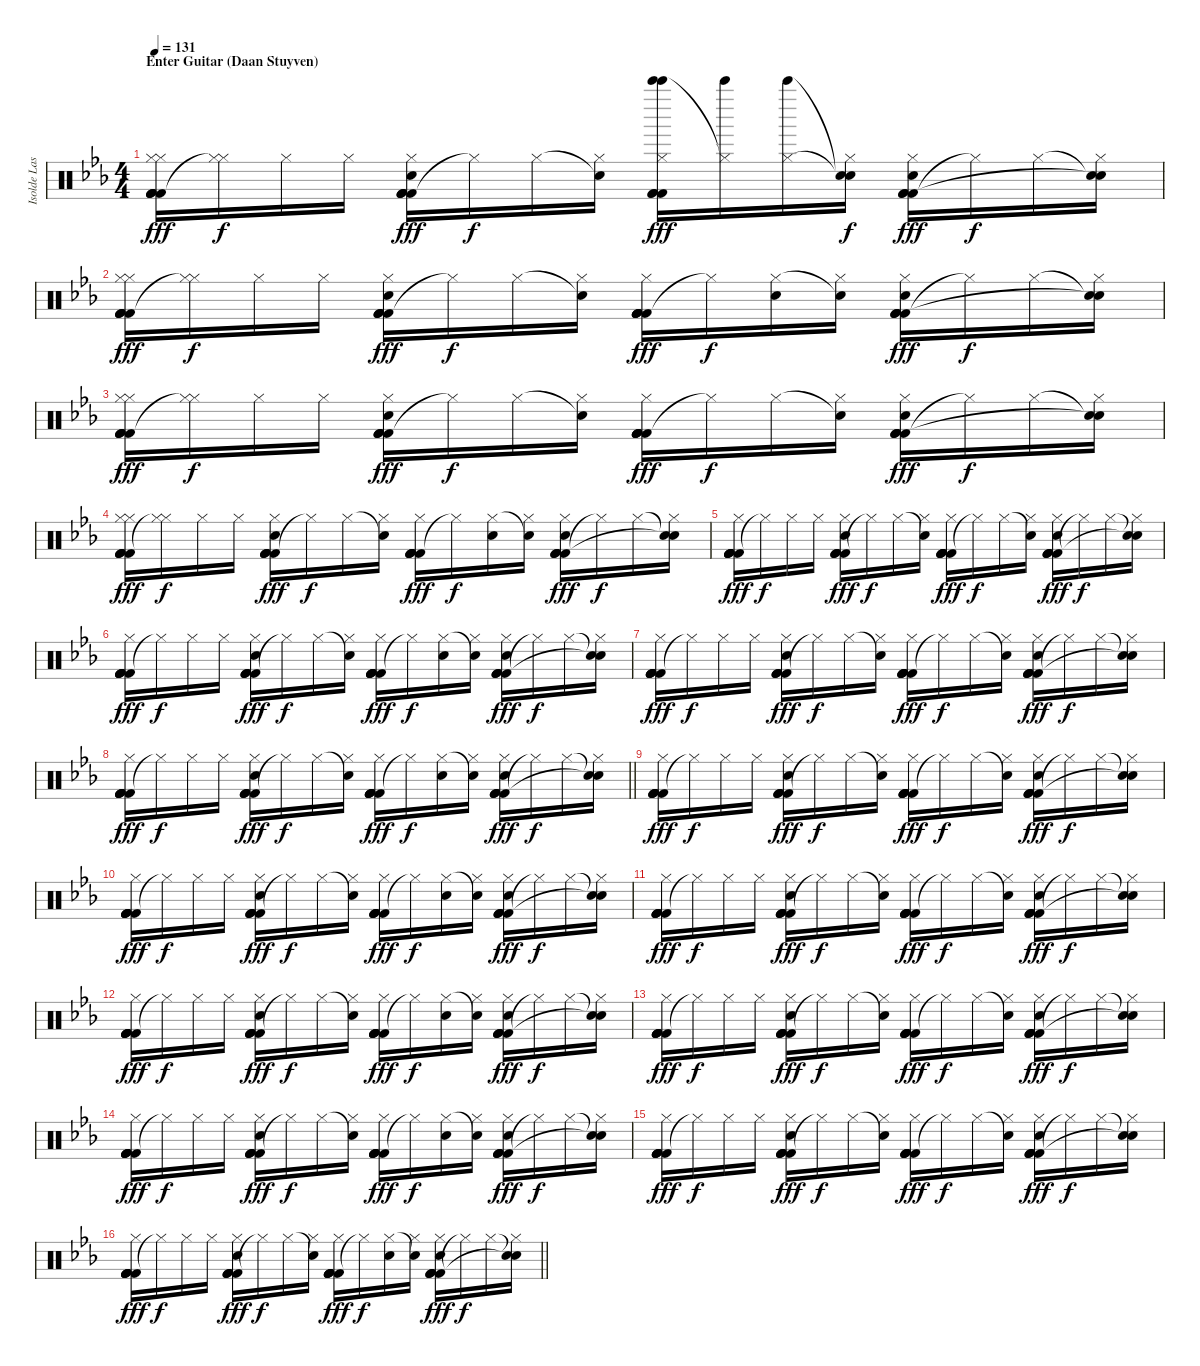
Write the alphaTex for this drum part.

\track ("Isolde Lasoen (Percussion)" "Isolde Las") {instrument percussion}
\staff {score}
\articulation defaults
\ts (4 4)
\section ("" "Enter Guitar (Daan Stuyven)")
\tempo 131
\clef neutral
\ks cminor
("Hi-Hat (closed)" "Kick (hit) 2" "Kick (hit) 2" "Kick (hit) 2" "Hi-Hat (closed)" "Kick (hit) 2").16{dy fff} ("Hi-Hat (closed)" "Hi-Hat (closed)"{t}).16{dy f} "Hi-Hat (closed)".16 "Hi-Hat (closed)".16 ("Kick (hit) 2" "Kick (hit) 2" "Kick (hit) 2" "Kick (hit) 2" "Hi-Hat (closed)" "Hand Clap (hit)").16{dy fff} "Hi-Hat (closed)"{t}.16{dy f} "Hi-Hat (closed)".16 ("Snare (hit)"{t} "Hi-Hat (closed)").16 ("Bell Tree (hit)" "Bell Tree (hit)" "Kick (hit) 2" "Kick (hit) 2" "Hi-Hat (closed)" "Kick (hit) 2").16{dy fff} ("Bell Tree (hit)" "Hi-Hat (closed)"{t}).16 ("Bell Tree (hit)" "Hi-Hat (closed)").16 ("Snare (hit)"{t} "Snare (hit)"{t} "Hi-Hat (closed)").16{dy f} ("Kick (hit) 2" "Kick (hit) 2" "Kick (hit) 2" "Hi-Hat (closed)" "Hand Clap (hit)").16{dy fff} "Hi-Hat (closed)"{t}.16{dy f} "Hi-Hat (closed)".16 ("Snare (hit)"{t} "Hi-Hat (closed)" "Snare (hit)"{t}).16 |
("Hi-Hat (closed)" "Kick (hit) 2" "Kick (hit) 2" "Kick (hit) 2" "Hi-Hat (closed)" "Kick (hit) 2").16{dy fff} ("Hi-Hat (closed)" "Hi-Hat (closed)"{t}).16{dy f} "Hi-Hat (closed)".16 "Hi-Hat (closed)".16 ("Kick (hit) 2" "Kick (hit) 2" "Kick (hit) 2" "Kick (hit) 2" "Hi-Hat (closed)" "Hand Clap (hit)").16{dy fff} "Hi-Hat (closed)"{t}.16{dy f} "Hi-Hat (closed)".16 ("Snare (hit)"{t} "Hi-Hat (closed)").16 ("Kick (hit) 2" "Kick (hit) 2" "Kick (hit) 2" "Kick (hit) 2" "Hi-Hat (closed)" "Kick (hit) 2").16{dy fff} "Hi-Hat (closed)"{t}.16{dy f} ("Hi-Hat (closed)" "Hand Clap (hit)").16 ("Snare (hit)"{t} "Hi-Hat (closed)").16 ("Kick (hit) 2" "Kick (hit) 2" "Kick (hit) 2" "Kick (hit) 2" "Hi-Hat (closed)" "Hand Clap (hit)").16{dy fff} "Hi-Hat (closed)"{t}.16{dy f} "Hi-Hat (closed)".16 ("Snare (hit)"{t} "Hi-Hat (closed)" "Snare (hit)"{t}).16 |
("Hi-Hat (closed)" "Kick (hit) 2" "Kick (hit) 2" "Kick (hit) 2" "Hi-Hat (closed)" "Kick (hit) 2").16{dy fff} ("Hi-Hat (closed)" "Hi-Hat (closed)"{t}).16{dy f} "Hi-Hat (closed)".16 "Hi-Hat (closed)".16 ("Kick (hit) 2" "Kick (hit) 2" "Kick (hit) 2" "Kick (hit) 2" "Hi-Hat (closed)" "Hand Clap (hit)").16{dy fff} "Hi-Hat (closed)"{t}.16{dy f} "Hi-Hat (closed)".16 ("Snare (hit)"{t} "Hi-Hat (closed)").16 ("Kick (hit) 2" "Kick (hit) 2" "Kick (hit) 2" "Kick (hit) 2" "Hi-Hat (closed)" "Kick (hit) 2").16{dy fff} "Hi-Hat (closed)"{t}.16{dy f} "Hi-Hat (closed)".16 ("Snare (hit)"{t} "Hi-Hat (closed)").16 ("Kick (hit) 2" "Kick (hit) 2" "Kick (hit) 2" "Kick (hit) 2" "Hi-Hat (closed)" "Hand Clap (hit)").16{dy fff} "Hi-Hat (closed)"{t}.16{dy f} "Hi-Hat (closed)".16 ("Snare (hit)"{t} "Hi-Hat (closed)" "Snare (hit)"{t}).16 |
("Hi-Hat (closed)" "Kick (hit) 2" "Kick (hit) 2" "Kick (hit) 2" "Hi-Hat (closed)" "Kick (hit) 2").16{dy fff} ("Hi-Hat (closed)" "Hi-Hat (closed)"{t}).16{dy f} "Hi-Hat (closed)".16 "Hi-Hat (closed)".16 ("Kick (hit) 2" "Kick (hit) 2" "Kick (hit) 2" "Kick (hit) 2" "Hi-Hat (closed)" "Hand Clap (hit)").16{dy fff} "Hi-Hat (closed)"{t}.16{dy f} "Hi-Hat (closed)".16 ("Snare (hit)"{t} "Hi-Hat (closed)").16 ("Kick (hit) 2" "Kick (hit) 2" "Kick (hit) 2" "Kick (hit) 2" "Hi-Hat (closed)" "Kick (hit) 2").16{dy fff} "Hi-Hat (closed)"{t}.16{dy f} ("Hi-Hat (closed)" "Hand Clap (hit)").16 ("Snare (hit)"{t} "Hi-Hat (closed)").16 ("Kick (hit) 2" "Kick (hit) 2" "Kick (hit) 2" "Kick (hit) 2" "Hi-Hat (closed)" "Hand Clap (hit)").16{dy fff} "Hi-Hat (closed)"{t}.16{dy f} "Hi-Hat (closed)".16 ("Snare (hit)"{t} "Hi-Hat (closed)" "Snare (hit)"{t}).16 |
("Kick (hit) 2" "Kick (hit) 2" "Kick (hit) 2" "Kick (hit) 2" "Hi-Hat (closed)" "Kick (hit) 2").16{dy fff} "Hi-Hat (closed)"{t}.16{dy f} "Hi-Hat (closed)".16 "Hi-Hat (closed)".16 ("Kick (hit) 2" "Kick (hit) 2" "Kick (hit) 2" "Kick (hit) 2" "Hi-Hat (closed)" "Hand Clap (hit)").16{dy fff} "Hi-Hat (closed)"{t}.16{dy f} "Hi-Hat (closed)".16 ("Snare (hit)"{t} "Hi-Hat (closed)").16 ("Kick (hit) 2" "Kick (hit) 2" "Kick (hit) 2" "Kick (hit) 2" "Hi-Hat (closed)" "Kick (hit) 2").16{dy fff} "Hi-Hat (closed)"{t}.16{dy f} "Hi-Hat (closed)".16 ("Snare (hit)"{t} "Hi-Hat (closed)").16 ("Kick (hit) 2" "Kick (hit) 2" "Kick (hit) 2" "Kick (hit) 2" "Hi-Hat (closed)" "Hand Clap (hit)").16{dy fff} "Hi-Hat (closed)"{t}.16{dy f} "Hi-Hat (closed)".16 ("Snare (hit)"{t} "Hi-Hat (closed)" "Snare (hit)"{t}).16 |
("Kick (hit) 2" "Kick (hit) 2" "Kick (hit) 2" "Kick (hit) 2" "Hi-Hat (closed)" "Kick (hit) 2").16{dy fff} "Hi-Hat (closed)"{t}.16{dy f} "Hi-Hat (closed)".16 "Hi-Hat (closed)".16 ("Kick (hit) 2" "Kick (hit) 2" "Kick (hit) 2" "Kick (hit) 2" "Hi-Hat (closed)" "Hand Clap (hit)").16{dy fff} "Hi-Hat (closed)"{t}.16{dy f} "Hi-Hat (closed)".16 ("Snare (hit)"{t} "Hi-Hat (closed)").16 ("Kick (hit) 2" "Kick (hit) 2" "Kick (hit) 2" "Kick (hit) 2" "Hi-Hat (closed)" "Kick (hit) 2").16{dy fff} "Hi-Hat (closed)"{t}.16{dy f} ("Hi-Hat (closed)" "Hand Clap (hit)").16 ("Snare (hit)"{t} "Hi-Hat (closed)").16 ("Kick (hit) 2" "Kick (hit) 2" "Kick (hit) 2" "Kick (hit) 2" "Hi-Hat (closed)" "Hand Clap (hit)").16{dy fff} "Hi-Hat (closed)"{t}.16{dy f} "Hi-Hat (closed)".16 ("Snare (hit)"{t} "Hi-Hat (closed)" "Snare (hit)"{t}).16 |
("Kick (hit) 2" "Kick (hit) 2" "Kick (hit) 2" "Kick (hit) 2" "Hi-Hat (closed)" "Kick (hit) 2").16{dy fff} "Hi-Hat (closed)"{t}.16{dy f} "Hi-Hat (closed)".16 "Hi-Hat (closed)".16 ("Kick (hit) 2" "Kick (hit) 2" "Kick (hit) 2" "Kick (hit) 2" "Hi-Hat (closed)" "Hand Clap (hit)").16{dy fff} "Hi-Hat (closed)"{t}.16{dy f} "Hi-Hat (closed)".16 ("Snare (hit)"{t} "Hi-Hat (closed)").16 ("Kick (hit) 2" "Kick (hit) 2" "Kick (hit) 2" "Kick (hit) 2" "Hi-Hat (closed)" "Kick (hit) 2").16{dy fff} "Hi-Hat (closed)"{t}.16{dy f} "Hi-Hat (closed)".16 ("Snare (hit)"{t} "Hi-Hat (closed)").16 ("Kick (hit) 2" "Kick (hit) 2" "Kick (hit) 2" "Kick (hit) 2" "Hi-Hat (closed)" "Hand Clap (hit)").16{dy fff} "Hi-Hat (closed)"{t}.16{dy f} "Hi-Hat (closed)".16 ("Snare (hit)"{t} "Hi-Hat (closed)" "Snare (hit)"{t}).16 |
\barLineRight lightlight
("Kick (hit) 2" "Kick (hit) 2" "Kick (hit) 2" "Kick (hit) 2" "Hi-Hat (closed)" "Kick (hit) 2").16{dy fff} "Hi-Hat (closed)"{t}.16{dy f} "Hi-Hat (closed)".16 "Hi-Hat (closed)".16 ("Kick (hit) 2" "Kick (hit) 2" "Kick (hit) 2" "Kick (hit) 2" "Hi-Hat (closed)" "Hand Clap (hit)").16{dy fff} "Hi-Hat (closed)"{t}.16{dy f} "Hi-Hat (closed)".16 ("Snare (hit)"{t} "Hi-Hat (closed)").16 ("Kick (hit) 2" "Kick (hit) 2" "Kick (hit) 2" "Kick (hit) 2" "Hi-Hat (closed)" "Kick (hit) 2").16{dy fff} "Hi-Hat (closed)"{t}.16{dy f} ("Hi-Hat (closed)" "Hand Clap (hit)").16 ("Snare (hit)"{t} "Hi-Hat (closed)").16 ("Kick (hit) 2" "Kick (hit) 2" "Kick (hit) 2" "Kick (hit) 2" "Hi-Hat (closed)" "Hand Clap (hit)").16{dy fff} "Hi-Hat (closed)"{t}.16{dy f} "Hi-Hat (closed)".16 ("Snare (hit)"{t} "Hi-Hat (closed)" "Snare (hit)"{t}).16 |
("Kick (hit) 2" "Kick (hit) 2" "Kick (hit) 2" "Kick (hit) 2" "Hi-Hat (closed)" "Kick (hit) 2").16{dy fff} "Hi-Hat (closed)"{t}.16{dy f} "Hi-Hat (closed)".16 "Hi-Hat (closed)".16 ("Kick (hit) 2" "Kick (hit) 2" "Kick (hit) 2" "Kick (hit) 2" "Hi-Hat (closed)" "Hand Clap (hit)").16{dy fff} "Hi-Hat (closed)"{t}.16{dy f} "Hi-Hat (closed)".16 ("Snare (hit)"{t} "Hi-Hat (closed)").16 ("Kick (hit) 2" "Kick (hit) 2" "Kick (hit) 2" "Kick (hit) 2" "Hi-Hat (closed)" "Kick (hit) 2").16{dy fff} "Hi-Hat (closed)"{t}.16{dy f} "Hi-Hat (closed)".16 ("Snare (hit)"{t} "Hi-Hat (closed)").16 ("Kick (hit) 2" "Kick (hit) 2" "Kick (hit) 2" "Kick (hit) 2" "Hi-Hat (closed)" "Hand Clap (hit)").16{dy fff} "Hi-Hat (closed)"{t}.16{dy f} "Hi-Hat (closed)".16 ("Snare (hit)"{t} "Hi-Hat (closed)" "Snare (hit)"{t}).16 |
("Kick (hit) 2" "Kick (hit) 2" "Kick (hit) 2" "Kick (hit) 2" "Hi-Hat (closed)" "Kick (hit) 2").16{dy fff} "Hi-Hat (closed)"{t}.16{dy f} "Hi-Hat (closed)".16 "Hi-Hat (closed)".16 ("Kick (hit) 2" "Kick (hit) 2" "Kick (hit) 2" "Kick (hit) 2" "Hi-Hat (closed)" "Hand Clap (hit)").16{dy fff} "Hi-Hat (closed)"{t}.16{dy f} "Hi-Hat (closed)".16 ("Snare (hit)"{t} "Hi-Hat (closed)").16 ("Kick (hit) 2" "Kick (hit) 2" "Kick (hit) 2" "Kick (hit) 2" "Hi-Hat (closed)" "Kick (hit) 2").16{dy fff} "Hi-Hat (closed)"{t}.16{dy f} ("Hi-Hat (closed)" "Hand Clap (hit)").16 ("Snare (hit)"{t} "Hi-Hat (closed)").16 ("Kick (hit) 2" "Kick (hit) 2" "Kick (hit) 2" "Kick (hit) 2" "Hi-Hat (closed)" "Hand Clap (hit)").16{dy fff} "Hi-Hat (closed)"{t}.16{dy f} "Hi-Hat (closed)".16 ("Snare (hit)"{t} "Hi-Hat (closed)" "Snare (hit)"{t}).16 |
("Kick (hit) 2" "Kick (hit) 2" "Kick (hit) 2" "Kick (hit) 2" "Hi-Hat (closed)" "Kick (hit) 2").16{dy fff} "Hi-Hat (closed)"{t}.16{dy f} "Hi-Hat (closed)".16 "Hi-Hat (closed)".16 ("Kick (hit) 2" "Kick (hit) 2" "Kick (hit) 2" "Kick (hit) 2" "Hi-Hat (closed)" "Hand Clap (hit)").16{dy fff} "Hi-Hat (closed)"{t}.16{dy f} "Hi-Hat (closed)".16 ("Snare (hit)"{t} "Hi-Hat (closed)").16 ("Kick (hit) 2" "Kick (hit) 2" "Kick (hit) 2" "Kick (hit) 2" "Hi-Hat (closed)" "Kick (hit) 2").16{dy fff} "Hi-Hat (closed)"{t}.16{dy f} "Hi-Hat (closed)".16 ("Snare (hit)"{t} "Hi-Hat (closed)").16 ("Kick (hit) 2" "Kick (hit) 2" "Kick (hit) 2" "Kick (hit) 2" "Hi-Hat (closed)" "Hand Clap (hit)").16{dy fff} "Hi-Hat (closed)"{t}.16{dy f} "Hi-Hat (closed)".16 ("Snare (hit)"{t} "Hi-Hat (closed)" "Snare (hit)"{t}).16 |
("Kick (hit) 2" "Kick (hit) 2" "Kick (hit) 2" "Kick (hit) 2" "Hi-Hat (closed)" "Kick (hit) 2").16{dy fff} "Hi-Hat (closed)"{t}.16{dy f} "Hi-Hat (closed)".16 "Hi-Hat (closed)".16 ("Kick (hit) 2" "Kick (hit) 2" "Kick (hit) 2" "Kick (hit) 2" "Hi-Hat (closed)" "Hand Clap (hit)").16{dy fff} "Hi-Hat (closed)"{t}.16{dy f} "Hi-Hat (closed)".16 ("Snare (hit)"{t} "Hi-Hat (closed)").16 ("Kick (hit) 2" "Kick (hit) 2" "Kick (hit) 2" "Kick (hit) 2" "Hi-Hat (closed)" "Kick (hit) 2").16{dy fff} "Hi-Hat (closed)"{t}.16{dy f} ("Hi-Hat (closed)" "Hand Clap (hit)").16 ("Snare (hit)"{t} "Hi-Hat (closed)").16 ("Kick (hit) 2" "Kick (hit) 2" "Kick (hit) 2" "Kick (hit) 2" "Hi-Hat (closed)" "Hand Clap (hit)").16{dy fff} "Hi-Hat (closed)"{t}.16{dy f} "Hi-Hat (closed)".16 ("Snare (hit)"{t} "Hi-Hat (closed)" "Snare (hit)"{t}).16 |
("Kick (hit) 2" "Kick (hit) 2" "Kick (hit) 2" "Kick (hit) 2" "Hi-Hat (closed)" "Kick (hit) 2").16{dy fff} "Hi-Hat (closed)"{t}.16{dy f} "Hi-Hat (closed)".16 "Hi-Hat (closed)".16 ("Kick (hit) 2" "Kick (hit) 2" "Kick (hit) 2" "Kick (hit) 2" "Hi-Hat (closed)" "Hand Clap (hit)").16{dy fff} "Hi-Hat (closed)"{t}.16{dy f} "Hi-Hat (closed)".16 ("Snare (hit)"{t} "Hi-Hat (closed)").16 ("Kick (hit) 2" "Kick (hit) 2" "Kick (hit) 2" "Kick (hit) 2" "Hi-Hat (closed)" "Kick (hit) 2").16{dy fff} "Hi-Hat (closed)"{t}.16{dy f} "Hi-Hat (closed)".16 ("Snare (hit)"{t} "Hi-Hat (closed)").16 ("Kick (hit) 2" "Kick (hit) 2" "Kick (hit) 2" "Kick (hit) 2" "Hi-Hat (closed)" "Hand Clap (hit)").16{dy fff} "Hi-Hat (closed)"{t}.16{dy f} "Hi-Hat (closed)".16 ("Snare (hit)"{t} "Hi-Hat (closed)" "Snare (hit)"{t}).16 |
("Kick (hit) 2" "Kick (hit) 2" "Kick (hit) 2" "Kick (hit) 2" "Hi-Hat (closed)" "Kick (hit) 2").16{dy fff} "Hi-Hat (closed)"{t}.16{dy f} "Hi-Hat (closed)".16 "Hi-Hat (closed)".16 ("Kick (hit) 2" "Kick (hit) 2" "Kick (hit) 2" "Kick (hit) 2" "Hi-Hat (closed)" "Hand Clap (hit)").16{dy fff} "Hi-Hat (closed)"{t}.16{dy f} "Hi-Hat (closed)".16 ("Snare (hit)"{t} "Hi-Hat (closed)").16 ("Kick (hit) 2" "Kick (hit) 2" "Kick (hit) 2" "Kick (hit) 2" "Hi-Hat (closed)" "Kick (hit) 2").16{dy fff} "Hi-Hat (closed)"{t}.16{dy f} ("Hi-Hat (closed)" "Hand Clap (hit)").16 ("Snare (hit)"{t} "Hi-Hat (closed)").16 ("Kick (hit) 2" "Kick (hit) 2" "Kick (hit) 2" "Kick (hit) 2" "Hi-Hat (closed)" "Hand Clap (hit)").16{dy fff} "Hi-Hat (closed)"{t}.16{dy f} "Hi-Hat (closed)".16 ("Snare (hit)"{t} "Hi-Hat (closed)" "Snare (hit)"{t}).16 |
("Kick (hit) 2" "Kick (hit) 2" "Kick (hit) 2" "Kick (hit) 2" "Hi-Hat (closed)" "Kick (hit) 2").16{dy fff} "Hi-Hat (closed)"{t}.16{dy f} "Hi-Hat (closed)".16 "Hi-Hat (closed)".16 ("Kick (hit) 2" "Kick (hit) 2" "Kick (hit) 2" "Kick (hit) 2" "Hi-Hat (closed)" "Hand Clap (hit)").16{dy fff} "Hi-Hat (closed)"{t}.16{dy f} "Hi-Hat (closed)".16 ("Snare (hit)"{t} "Hi-Hat (closed)").16 ("Kick (hit) 2" "Kick (hit) 2" "Kick (hit) 2" "Kick (hit) 2" "Hi-Hat (closed)" "Kick (hit) 2").16{dy fff} "Hi-Hat (closed)"{t}.16{dy f} "Hi-Hat (closed)".16 ("Snare (hit)"{t} "Hi-Hat (closed)").16 ("Kick (hit) 2" "Kick (hit) 2" "Kick (hit) 2" "Kick (hit) 2" "Hi-Hat (closed)" "Hand Clap (hit)").16{dy fff} "Hi-Hat (closed)"{t}.16{dy f} "Hi-Hat (closed)".16 ("Snare (hit)"{t} "Hi-Hat (closed)" "Snare (hit)"{t}).16 |
\barLineRight lightlight
("Kick (hit) 2" "Kick (hit) 2" "Kick (hit) 2" "Kick (hit) 2" "Hi-Hat (closed)" "Kick (hit) 2").16{dy fff} "Hi-Hat (closed)"{t}.16{dy f} "Hi-Hat (closed)".16 "Hi-Hat (closed)".16 ("Kick (hit) 2" "Kick (hit) 2" "Kick (hit) 2" "Kick (hit) 2" "Hi-Hat (closed)" "Hand Clap (hit)").16{dy fff} "Hi-Hat (closed)"{t}.16{dy f} "Hi-Hat (closed)".16 ("Snare (hit)"{t} "Hi-Hat (closed)").16 ("Kick (hit) 2" "Kick (hit) 2" "Kick (hit) 2" "Kick (hit) 2" "Hi-Hat (closed)" "Kick (hit) 2").16{dy fff} "Hi-Hat (closed)"{t}.16{dy f} ("Hi-Hat (closed)" "Hand Clap (hit)").16 ("Snare (hit)"{t} "Hi-Hat (closed)").16 ("Kick (hit) 2" "Kick (hit) 2" "Kick (hit) 2" "Kick (hit) 2" "Hi-Hat (closed)" "Hand Clap (hit)").16{dy fff} "Hi-Hat (closed)"{t}.16{dy f} "Hi-Hat (closed)".16 ("Snare (hit)"{t} "Hi-Hat (closed)" "Snare (hit)"{t}).16
